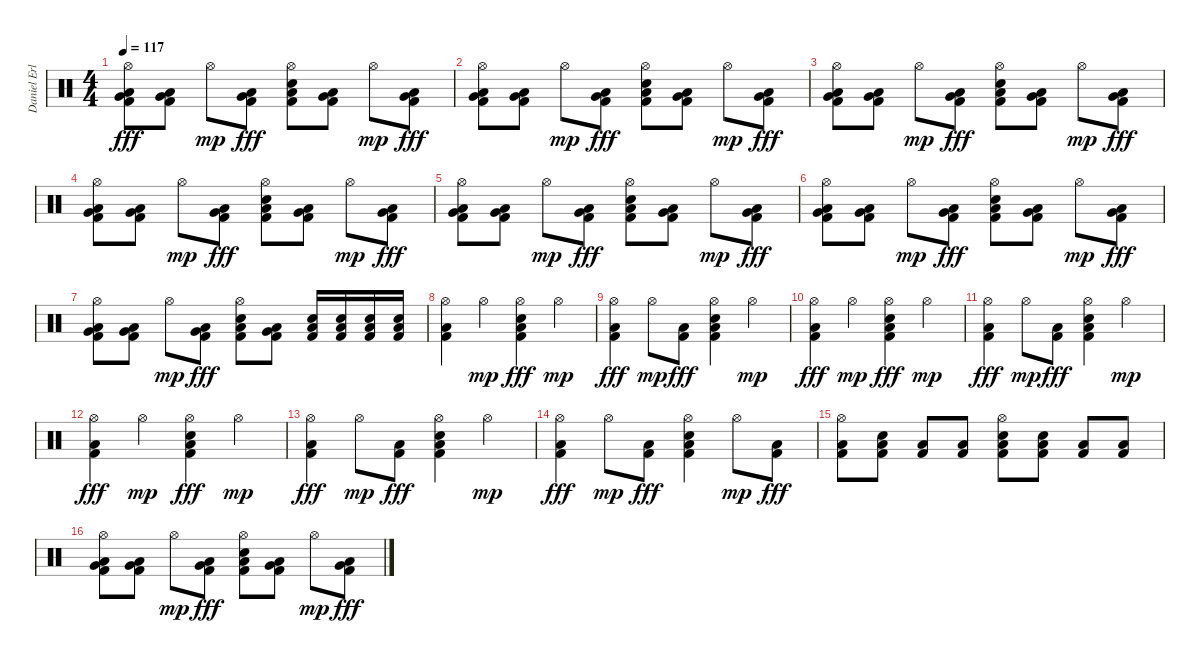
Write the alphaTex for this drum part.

\track ("Daniel Erlandsson" "Daniel Erl") {instrument percussion}
\staff {score}
\articulation defaults
\ts (4 4)
\tempo 117
\clef neutral
\ks c
("Hi-Hat (open)" "Very Low Tom (hit)" "Kick (hit) 2" "Low Floor Tom (hit)").8{dy fff} ("Very Low Tom (hit)" "Kick (hit) 2" "Low Floor Tom (hit)").8 "Hi-Hat (open)".8{dy mp} ("Very Low Tom (hit)" "Kick (hit) 2" "Low Floor Tom (hit)").8{dy fff} ("Hi-Hat (open)" "Snare (hit) 2" "Kick (hit) 2" "Low Tom (hit)").8 ("Very Low Tom (hit)" "Kick (hit) 2" "Low Floor Tom (hit)").8 "Hi-Hat (open)".8{dy mp} ("Very Low Tom (hit)" "Kick (hit) 2" "Low Floor Tom (hit)").8{dy fff} |
("Hi-Hat (open)" "Very Low Tom (hit)" "Kick (hit) 2" "Low Floor Tom (hit)").8 ("Very Low Tom (hit)" "Kick (hit) 2" "Low Floor Tom (hit)").8 "Hi-Hat (open)".8{dy mp} ("Very Low Tom (hit)" "Kick (hit) 2" "Low Floor Tom (hit)").8{dy fff} ("Hi-Hat (open)" "Snare (hit) 2" "Kick (hit) 2" "Low Tom (hit)").8 ("Very Low Tom (hit)" "Kick (hit) 2" "Low Floor Tom (hit)").8 "Hi-Hat (open)".8{dy mp} ("Very Low Tom (hit)" "Kick (hit) 2" "Low Floor Tom (hit)").8{dy fff} |
("Hi-Hat (open)" "Very Low Tom (hit)" "Kick (hit) 2" "Low Floor Tom (hit)").8 ("Very Low Tom (hit)" "Kick (hit) 2" "Low Floor Tom (hit)").8 "Hi-Hat (open)".8{dy mp} ("Very Low Tom (hit)" "Kick (hit) 2" "Low Floor Tom (hit)").8{dy fff} ("Hi-Hat (open)" "Snare (hit) 2" "Kick (hit) 2" "Low Tom (hit)").8 ("Very Low Tom (hit)" "Kick (hit) 2" "Low Floor Tom (hit)").8 "Hi-Hat (open)".8{dy mp} ("Very Low Tom (hit)" "Kick (hit) 2" "Low Floor Tom (hit)").8{dy fff} |
("Hi-Hat (open)" "Very Low Tom (hit)" "Kick (hit) 2" "Low Floor Tom (hit)").8 ("Very Low Tom (hit)" "Kick (hit) 2" "Low Floor Tom (hit)").8 "Hi-Hat (open)".8{dy mp} ("Very Low Tom (hit)" "Kick (hit) 2" "Low Floor Tom (hit)").8{dy fff} ("Hi-Hat (open)" "Snare (hit) 2" "Kick (hit) 2" "Low Tom (hit)").8 ("Very Low Tom (hit)" "Kick (hit) 2" "Low Floor Tom (hit)").8 "Hi-Hat (open)".8{dy mp} ("Very Low Tom (hit)" "Kick (hit) 2" "Low Floor Tom (hit)").8{dy fff} |
("Hi-Hat (open)" "Very Low Tom (hit)" "Kick (hit) 2" "Low Floor Tom (hit)").8 ("Very Low Tom (hit)" "Kick (hit) 2" "Low Floor Tom (hit)").8 "Hi-Hat (open)".8{dy mp} ("Very Low Tom (hit)" "Kick (hit) 2" "Low Floor Tom (hit)").8{dy fff} ("Hi-Hat (open)" "Snare (hit) 2" "Kick (hit) 2" "Low Tom (hit)").8 ("Very Low Tom (hit)" "Kick (hit) 2" "Low Floor Tom (hit)").8 "Hi-Hat (open)".8{dy mp} ("Very Low Tom (hit)" "Kick (hit) 2" "Low Floor Tom (hit)").8{dy fff} |
("Hi-Hat (open)" "Very Low Tom (hit)" "Kick (hit) 2" "Low Floor Tom (hit)").8 ("Very Low Tom (hit)" "Kick (hit) 2" "Low Floor Tom (hit)").8 "Hi-Hat (open)".8{dy mp} ("Very Low Tom (hit)" "Kick (hit) 2" "Low Floor Tom (hit)").8{dy fff} ("Hi-Hat (open)" "Snare (hit) 2" "Kick (hit) 2" "Low Tom (hit)").8 ("Very Low Tom (hit)" "Kick (hit) 2" "Low Floor Tom (hit)").8 "Hi-Hat (open)".8{dy mp} ("Very Low Tom (hit)" "Kick (hit) 2" "Low Floor Tom (hit)").8{dy fff} |
("Hi-Hat (open)" "Very Low Tom (hit)" "Kick (hit) 2" "Low Floor Tom (hit)").8 ("Very Low Tom (hit)" "Kick (hit) 2" "Low Floor Tom (hit)").8 "Hi-Hat (open)".8{dy mp} ("Very Low Tom (hit)" "Kick (hit) 2" "Low Floor Tom (hit)").8{dy fff} ("Hi-Hat (open)" "Snare (hit) 2" "Kick (hit) 2" "Low Tom (hit)").8 ("Very Low Tom (hit)" "Kick (hit) 2" "Low Floor Tom (hit)").8 ("Snare (hit) 2" "Kick (hit) 2" "Low Floor Tom (hit)").16 ("Snare (hit) 2" "Kick (hit) 2" "Low Floor Tom (hit)").16 ("Snare (hit) 2" "Kick (hit) 2" "Low Floor Tom (hit)").16 ("Snare (hit) 2" "Kick (hit) 2" "Low Floor Tom (hit)").16 |
("Hi-Hat (open)" "Kick (hit) 2" "Low Floor Tom (hit)").4 "Hi-Hat (open)".4{dy mp} ("Hi-Hat (open)" "Snare (hit) 2" "Kick (hit) 2" "Low Floor Tom (hit)").4{dy fff} "Hi-Hat (open)".4{dy mp} |
("Hi-Hat (open)" "Kick (hit) 2" "Low Floor Tom (hit)").4{dy fff} "Hi-Hat (open)".8{dy mp} ("Kick (hit) 2" "Low Floor Tom (hit)").8{dy fff} ("Hi-Hat (open)" "Snare (hit) 2" "Kick (hit) 2" "Low Floor Tom (hit)").4 "Hi-Hat (open)".4{dy mp} |
("Hi-Hat (open)" "Kick (hit) 2" "Low Floor Tom (hit)").4{dy fff} "Hi-Hat (open)".4{dy mp} ("Hi-Hat (open)" "Snare (hit) 2" "Kick (hit) 2" "Low Floor Tom (hit)").4{dy fff} "Hi-Hat (open)".4{dy mp} |
("Hi-Hat (open)" "Kick (hit) 2" "Low Floor Tom (hit)").4{dy fff} "Hi-Hat (open)".8{dy mp} ("Kick (hit) 2" "Low Floor Tom (hit)").8{dy fff} ("Hi-Hat (open)" "Snare (hit) 2" "Kick (hit) 2" "Low Floor Tom (hit)").4 "Hi-Hat (open)".4{dy mp} |
("Hi-Hat (open)" "Kick (hit) 2" "Low Floor Tom (hit)").4{dy fff} "Hi-Hat (open)".4{dy mp} ("Hi-Hat (open)" "Snare (hit) 2" "Kick (hit) 2" "Low Floor Tom (hit)").4{dy fff} "Hi-Hat (open)".4{dy mp} |
("Hi-Hat (open)" "Kick (hit) 2" "Low Floor Tom (hit)").4{dy fff} "Hi-Hat (open)".8{dy mp} ("Kick (hit) 2" "Low Floor Tom (hit)").8{dy fff} ("Hi-Hat (open)" "Snare (hit) 2" "Kick (hit) 2" "Low Floor Tom (hit)").4 "Hi-Hat (open)".4{dy mp} |
("Hi-Hat (open)" "Kick (hit) 2" "Low Floor Tom (hit)").4{dy fff} "Hi-Hat (open)".8{dy mp} ("Kick (hit) 2" "Low Floor Tom (hit)").8{dy fff} ("Hi-Hat (open)" "Snare (hit) 2" "Kick (hit) 2" "Low Floor Tom (hit)").4 "Hi-Hat (open)".8{dy mp} ("Kick (hit) 2" "Low Floor Tom (hit)").8{dy fff} |
("Hi-Hat (open)" "Kick (hit) 2" "Low Floor Tom (hit)").8 ("Snare (hit) 2" "Kick (hit) 2" "Low Floor Tom (hit)").8 ("Kick (hit) 2" "Low Floor Tom (hit)").8 ("Kick (hit) 2" "Low Floor Tom (hit)").8 ("Hi-Hat (open)" "Snare (hit) 2" "Kick (hit) 2" "Low Floor Tom (hit)").8 ("Snare (hit) 2" "Kick (hit) 2" "Low Floor Tom (hit)").8 ("Kick (hit) 2" "Low Floor Tom (hit)").8 ("Kick (hit) 2" "Low Floor Tom (hit)").8 |
("Hi-Hat (open)" "Very Low Tom (hit)" "Kick (hit) 2" "Low Floor Tom (hit)").8 ("Very Low Tom (hit)" "Kick (hit) 2" "Low Floor Tom (hit)").8 "Hi-Hat (open)".8{dy mp} ("Very Low Tom (hit)" "Kick (hit) 2" "Low Floor Tom (hit)").8{dy fff} ("Hi-Hat (open)" "Snare (hit) 2" "Kick (hit) 2" "Low Tom (hit)").8 ("Very Low Tom (hit)" "Kick (hit) 2" "Low Floor Tom (hit)").8 "Hi-Hat (open)".8{dy mp} ("Very Low Tom (hit)" "Kick (hit) 2" "Low Floor Tom (hit)").8{dy fff}
